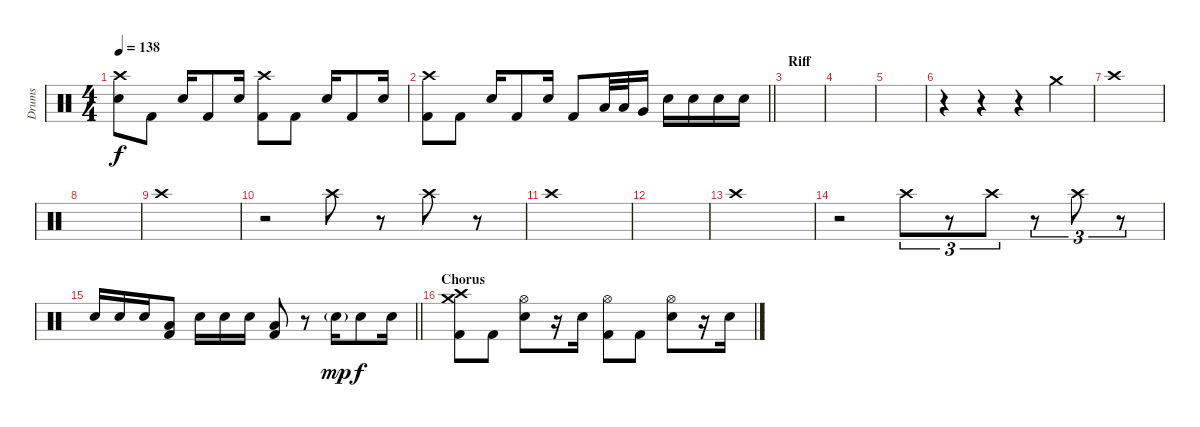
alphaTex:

\track ("Drums" "Drums") {instrument percussion}
\staff {score}
\articulation defaults
\ts (4 4)
\tempo 138
\clef neutral
\ks c
("Crash high (hit)" "Electric Snare (hit)").8{dy f} "Kick (hit) 2".8 "Electric Snare (hit)".16 "Kick (hit) 2".8 "Electric Snare (hit)".16 ("Crash high (hit)" "Kick (hit) 2").8 "Kick (hit) 2".8 "Electric Snare (hit)".16 "Kick (hit) 2".8 "Electric Snare (hit)".16 |
\barLineRight lightlight
("Crash high (hit)" "Kick (hit) 2").8 "Kick (hit) 2".8 "Electric Snare (hit)".16 "Kick (hit) 2".8 "Electric Snare (hit)".16 "Kick (hit) 2".8 "Low Tom (hit)".32 "Low Tom (hit)".32 "Very Low Tom (hit)".16 "Electric Snare (hit)".16 "Electric Snare (hit)".16 "Electric Snare (hit)".16 "Electric Snare (hit)".16 |
\section ("" "Riff")
|
|
|
r.4 r.4 r.4 "Crash medium (hit)".4 |
"Crash high (hit)".1 |
|
"Crash high (hit)".1 |
r.2 "Crash high (hit)".8 r.8 "Crash high (hit)".8 r.8 |
"Crash high (hit)".1 |
|
"Crash high (hit)".1 |
r.2 "Crash high (hit)".8{tu (3 2)} r.8{tu (3 2)} "Crash high (hit)".8{tu (3 2)} r.8{tu (3 2)} "Crash high (hit)".8{tu (3 2)} r.8{tu (3 2)} |
\barLineRight lightlight "Electric Snare (hit)".16 "Electric Snare (hit)".16 "Electric Snare (hit)".16
("Low Tom (hit)" "Kick (hit) 2").8 "Electric Snare (hit)".16 "Electric Snare (hit)".16 "Electric Snare (hit)".16 ("Low Tom (hit)" "Kick (hit) 2").8 r.8 "Electric Snare (hit)"{g}.16{dy mp} "Electric Snare (hit)".8{dy f} "Electric Snare (hit)".16 |
\section ("" "Chorus")
("Crash high (hit)" "Crash medium (hit)" "Kick (hit) 2").8 "Kick (hit) 2".8 ("Hi-Hat (open)" "Electric Snare (hit)").8 r.16 "Electric Snare (hit)".16 ("Hi-Hat (open)" "Kick (hit) 2").8 "Kick (hit) 2".8 ("Hi-Hat (open)" "Electric Snare (hit)").8 r.16 "Electric Snare (hit)".16
